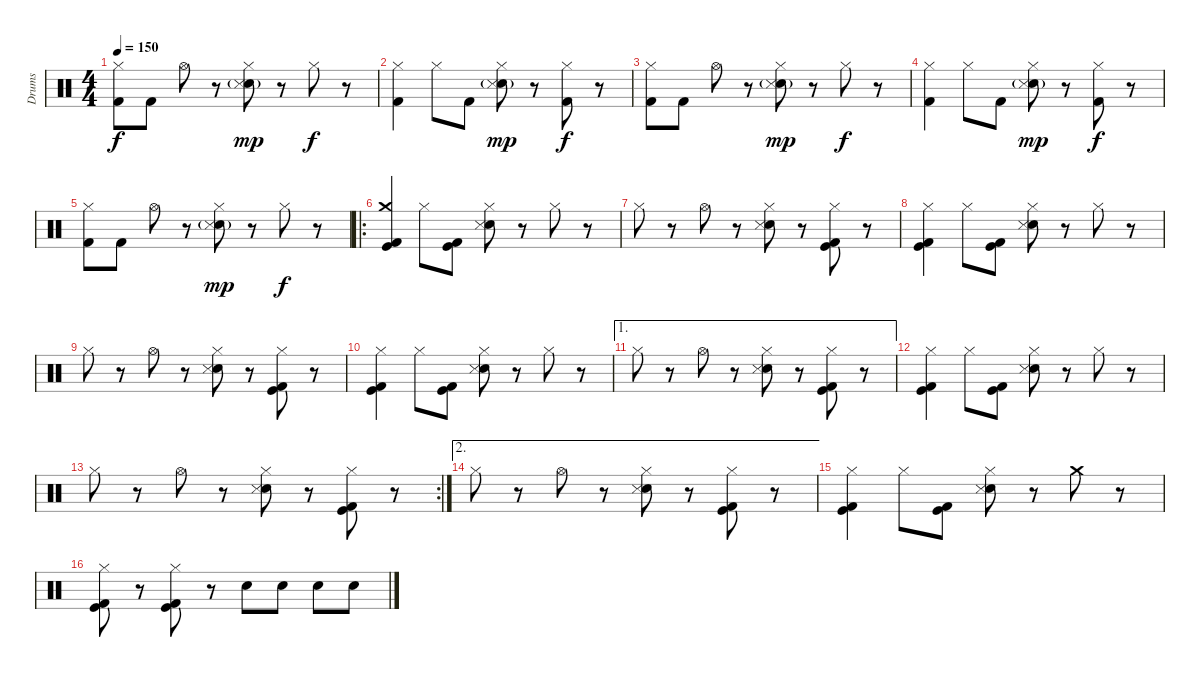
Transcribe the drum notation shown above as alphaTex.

\track ("Drums" "Drums") {instrument percussion}
\staff {score}
\articulation defaults
\ts (4 4)
\tempo 150
\clef neutral
\ks c
("Hi-Hat (closed)" "Kick (hit) 2").8{dy f} "Kick (hit) 2".8 "Hi-Hat (open)".8 r.8 ("Hi-Hat (closed)" "Snare (hit) 2"{g} "Snare (side stick) 3").8{dy mp} r.8 "Hi-Hat (closed)".8{dy f} r.8 |
("Hi-Hat (closed)" "Kick (hit) 2").4 "Hi-Hat (closed)".8 "Kick (hit) 2".8 ("Hi-Hat (closed)" "Snare (hit) 2"{g} "Snare (side stick) 3").8{dy mp} r.8 ("Hi-Hat (closed)" "Kick (hit) 2").8{dy f} r.8 |
("Hi-Hat (closed)" "Kick (hit) 2").8 "Kick (hit) 2".8 "Hi-Hat (open)".8 r.8 ("Hi-Hat (closed)" "Snare (hit) 2"{g} "Snare (side stick) 3").8{dy mp} r.8 "Hi-Hat (closed)".8{dy f} r.8 |
("Hi-Hat (closed)" "Kick (hit) 2").4 "Hi-Hat (closed)".8 "Kick (hit) 2".8 ("Hi-Hat (closed)" "Snare (hit) 2"{g} "Snare (side stick) 3").8{dy mp} r.8 ("Hi-Hat (closed)" "Kick (hit) 2").8{dy f} r.8 |
("Hi-Hat (closed)" "Kick (hit) 2").8 "Kick (hit) 2".8 "Hi-Hat (open)".8 r.8 ("Hi-Hat (closed)" "Snare (hit) 2"{g} "Snare (side stick) 3").8{dy mp} r.8 "Hi-Hat (closed)".8{dy f} r.8 |
\ro
("Crash medium (hit)" "Kick (hit)" "Kick (hit) 2").4 "Hi-Hat (closed)".8 ("Kick (hit)" "Kick (hit) 2").8 ("Hi-Hat (closed)" "Snare (hit) 2" "Snare (side stick) 3").8 r.8 "Hi-Hat (closed)".8 r.8 |
"Hi-Hat (closed)".8 r.8 "Hi-Hat (open)".8 r.8 ("Hi-Hat (closed)" "Snare (hit) 2" "Snare (side stick) 3").8 r.8 ("Hi-Hat (closed)" "Kick (hit)" "Kick (hit) 2").8 r.8 |
("Hi-Hat (closed)" "Kick (hit)" "Kick (hit) 2").4 "Hi-Hat (closed)".8 ("Kick (hit)" "Kick (hit) 2").8 ("Hi-Hat (closed)" "Snare (hit) 2" "Snare (side stick) 3").8 r.8 "Hi-Hat (closed)".8 r.8 |
"Hi-Hat (closed)".8 r.8 "Hi-Hat (open)".8 r.8 ("Hi-Hat (closed)" "Snare (hit) 2" "Snare (side stick) 3").8 r.8 ("Hi-Hat (closed)" "Kick (hit)" "Kick (hit) 2").8 r.8 |
("Hi-Hat (closed)" "Kick (hit)" "Kick (hit) 2").4 "Hi-Hat (closed)".8 ("Kick (hit)" "Kick (hit) 2").8 ("Hi-Hat (closed)" "Snare (hit) 2" "Snare (side stick) 3").8 r.8 "Hi-Hat (closed)".8 r.8 |
\ae 1 "Hi-Hat (closed)".8
r.8 "Hi-Hat (open)".8 r.8 ("Hi-Hat (closed)" "Snare (hit) 2" "Snare (side stick) 3").8 r.8 ("Hi-Hat (closed)" "Kick (hit)" "Kick (hit) 2").8 r.8 |
("Hi-Hat (closed)" "Kick (hit)" "Kick (hit) 2").4 "Hi-Hat (closed)".8 ("Kick (hit)" "Kick (hit) 2").8 ("Hi-Hat (closed)" "Snare (hit) 2" "Snare (side stick) 3").8 r.8 "Hi-Hat (closed)".8 r.8 |
\rc 2 "Hi-Hat (closed)".8
r.8 "Hi-Hat (open)".8 r.8 ("Hi-Hat (closed)" "Snare (hit) 2" "Snare (side stick) 3").8 r.8 ("Hi-Hat (closed)" "Kick (hit)" "Kick (hit) 2").8 r.8 |
\ae 2 "Hi-Hat (closed)".8
r.8 "Hi-Hat (open)".8 r.8 ("Hi-Hat (closed)" "Snare (hit) 2" "Snare (side stick) 3").8 r.8 ("Hi-Hat (closed)" "Kick (hit)" "Kick (hit) 2").8 r.8 |
("Hi-Hat (closed)" "Kick (hit)" "Kick (hit) 2").4 "Hi-Hat (closed)".8 ("Kick (hit)" "Kick (hit) 2").8 ("Hi-Hat (closed)" "Snare (hit) 2" "Snare (side stick) 3").8 r.8 "Crash medium (hit)".8 r.8 |
("Hi-Hat (closed)" "Kick (hit)" "Kick (hit) 2").8 r.8 ("Hi-Hat (closed)" "Kick (hit)" "Kick (hit) 2").8 r.8 "Snare (hit) 2".8 "Snare (hit) 2".8 "Snare (hit) 2".8 "Snare (hit) 2".8
